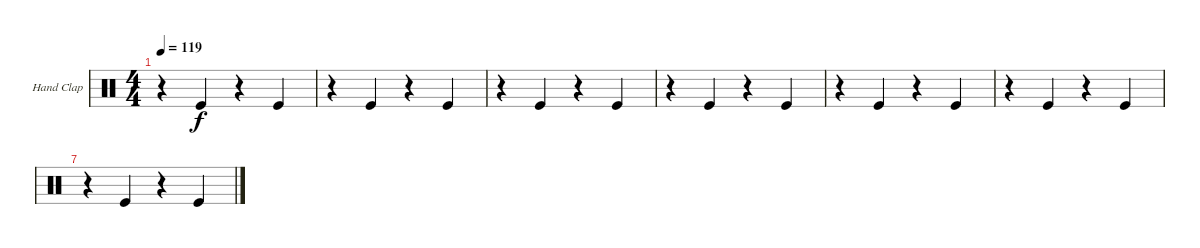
\defaultSystemsLayout 4
\bracketExtendMode groupsimilarinstruments
\useSystemSignSeparator
\multiBarRest
\multiTrackTrackNamePolicy allsystems
\firstSystemTrackNameMode fullname
\firstSystemTrackNameOrientation horizontal
\otherSystemsTrackNameOrientation horizontal
\defaultBarNumberDisplay FirstOfSystem
\track ("Hand Clap" "H-Clap") {multiBarRest instrument percussion}
\staff {score}
\articulation defaults
\ts (4 4)
\tempo 119
\clef neutral
\ks aminor
r.4{dy f} "Kick (hit)".4 r.4 "Kick (hit)".4 |
r.4 "Kick (hit)".4 r.4 "Kick (hit)".4 |
r.4 "Kick (hit)".4 r.4 "Kick (hit)".4 |
r.4 "Kick (hit)".4 r.4 "Kick (hit)".4 |
r.4 "Kick (hit)".4 r.4 "Kick (hit)".4 |
r.4 "Kick (hit)".4 r.4 "Kick (hit)".4 |
r.4 "Kick (hit)".4 r.4 "Kick (hit)".4
